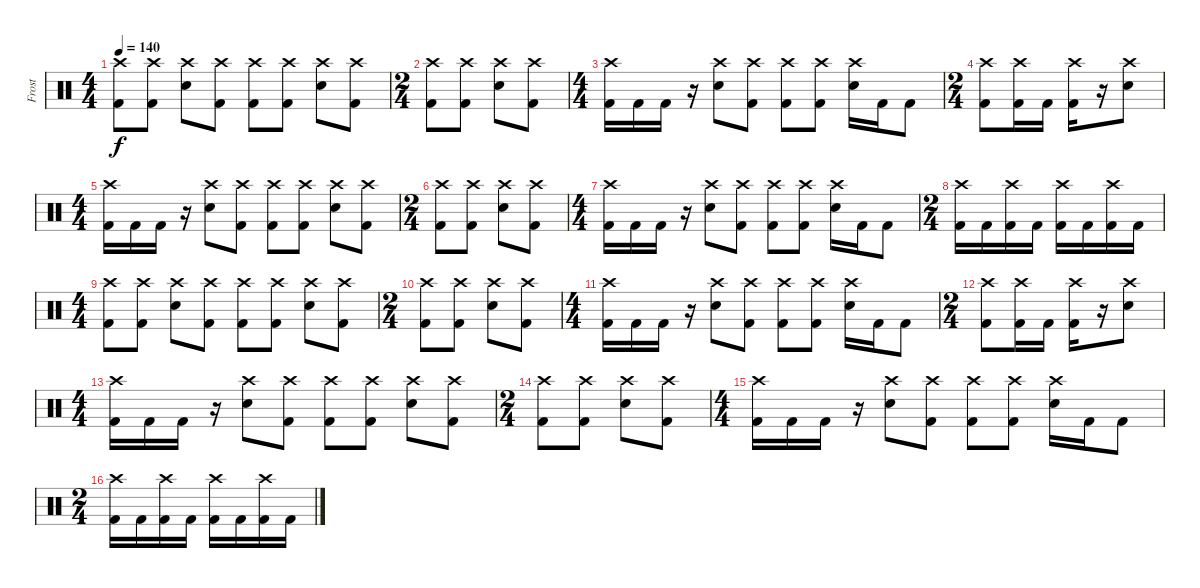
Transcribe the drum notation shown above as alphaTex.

\track ("Frost" "Frost") {instrument percussion}
\staff {score}
\articulation defaults
\ts (4 4)
\tempo 140
\clef neutral
\ks c
("Crash high (hit)" "Kick (hit) 2").8{dy f} ("Crash high (hit)" "Kick (hit) 2").8 ("Crash high (hit)" "Snare (hit) 2").8 ("Crash high (hit)" "Kick (hit) 2").8 ("Crash high (hit)" "Kick (hit) 2").8 ("Crash high (hit)" "Kick (hit) 2").8 ("Crash high (hit)" "Snare (hit) 2").8 ("Crash high (hit)" "Kick (hit) 2").8 |
\ts (2 4)
("Crash high (hit)" "Kick (hit) 2").8 ("Crash high (hit)" "Kick (hit) 2").8 ("Crash high (hit)" "Snare (hit) 2").8 ("Crash high (hit)" "Kick (hit) 2").8 |
\ts (4 4)
("Crash high (hit)" "Kick (hit) 2").16 "Kick (hit) 2".16 "Kick (hit) 2".16 r.16 ("Crash high (hit)" "Snare (hit) 2").8 ("Crash high (hit)" "Kick (hit) 2").8 ("Crash high (hit)" "Kick (hit) 2").8 ("Crash high (hit)" "Kick (hit) 2").8 ("Crash high (hit)" "Snare (hit) 2").16 "Kick (hit) 2".16 "Kick (hit) 2".8 |
\ts (2 4)
("Crash high (hit)" "Kick (hit) 2").8 ("Crash high (hit)" "Kick (hit) 2").16 "Kick (hit) 2".16 ("Crash high (hit)" "Kick (hit) 2").16 r.16 ("Crash high (hit)" "Snare (hit) 2").8 |
\ts (4 4)
("Crash high (hit)" "Kick (hit) 2").16 "Kick (hit) 2".16 "Kick (hit) 2".16 r.16 ("Crash high (hit)" "Snare (hit) 2").8 ("Crash high (hit)" "Kick (hit) 2").8 ("Crash high (hit)" "Kick (hit) 2").8 ("Crash high (hit)" "Kick (hit) 2").8 ("Crash high (hit)" "Snare (hit) 2").8 ("Crash high (hit)" "Kick (hit) 2").8 |
\ts (2 4)
("Crash high (hit)" "Kick (hit) 2").8 ("Crash high (hit)" "Kick (hit) 2").8 ("Crash high (hit)" "Snare (hit) 2").8 ("Crash high (hit)" "Kick (hit) 2").8 |
\ts (4 4)
("Crash high (hit)" "Kick (hit) 2").16 "Kick (hit) 2".16 "Kick (hit) 2".16 r.16 ("Crash high (hit)" "Snare (hit) 2").8 ("Crash high (hit)" "Kick (hit) 2").8 ("Crash high (hit)" "Kick (hit) 2").8 ("Crash high (hit)" "Kick (hit) 2").8 ("Crash high (hit)" "Snare (hit) 2").16 "Kick (hit) 2".16 "Kick (hit) 2".8 |
\ts (2 4)
("Crash high (hit)" "Kick (hit) 2").16 "Kick (hit) 2".16 ("Crash high (hit)" "Kick (hit) 2").16 "Kick (hit) 2".16 ("Crash high (hit)" "Kick (hit) 2").16 "Kick (hit) 2".16 ("Crash high (hit)" "Kick (hit) 2").16 "Kick (hit) 2".16 |
\ts (4 4)
("Crash high (hit)" "Kick (hit) 2").8 ("Crash high (hit)" "Kick (hit) 2").8 ("Crash high (hit)" "Snare (hit) 2").8 ("Crash high (hit)" "Kick (hit) 2").8 ("Crash high (hit)" "Kick (hit) 2").8 ("Crash high (hit)" "Kick (hit) 2").8 ("Crash high (hit)" "Snare (hit) 2").8 ("Crash high (hit)" "Kick (hit) 2").8 |
\ts (2 4)
("Crash high (hit)" "Kick (hit) 2").8 ("Crash high (hit)" "Kick (hit) 2").8 ("Crash high (hit)" "Snare (hit) 2").8 ("Crash high (hit)" "Kick (hit) 2").8 |
\ts (4 4)
("Crash high (hit)" "Kick (hit) 2").16 "Kick (hit) 2".16 "Kick (hit) 2".16 r.16 ("Crash high (hit)" "Snare (hit) 2").8 ("Crash high (hit)" "Kick (hit) 2").8 ("Crash high (hit)" "Kick (hit) 2").8 ("Crash high (hit)" "Kick (hit) 2").8 ("Crash high (hit)" "Snare (hit) 2").16 "Kick (hit) 2".16 "Kick (hit) 2".8 |
\ts (2 4)
("Crash high (hit)" "Kick (hit) 2").8 ("Crash high (hit)" "Kick (hit) 2").16 "Kick (hit) 2".16 ("Crash high (hit)" "Kick (hit) 2").16 r.16 ("Crash high (hit)" "Snare (hit) 2").8 |
\ts (4 4)
("Crash high (hit)" "Kick (hit) 2").16 "Kick (hit) 2".16 "Kick (hit) 2".16 r.16 ("Crash high (hit)" "Snare (hit) 2").8 ("Crash high (hit)" "Kick (hit) 2").8 ("Crash high (hit)" "Kick (hit) 2").8 ("Crash high (hit)" "Kick (hit) 2").8 ("Crash high (hit)" "Snare (hit) 2").8 ("Crash high (hit)" "Kick (hit) 2").8 |
\ts (2 4)
("Crash high (hit)" "Kick (hit) 2").8 ("Crash high (hit)" "Kick (hit) 2").8 ("Crash high (hit)" "Snare (hit) 2").8 ("Crash high (hit)" "Kick (hit) 2").8 |
\ts (4 4)
("Crash high (hit)" "Kick (hit) 2").16 "Kick (hit) 2".16 "Kick (hit) 2".16 r.16 ("Crash high (hit)" "Snare (hit) 2").8 ("Crash high (hit)" "Kick (hit) 2").8 ("Crash high (hit)" "Kick (hit) 2").8 ("Crash high (hit)" "Kick (hit) 2").8 ("Crash high (hit)" "Snare (hit) 2").16 "Kick (hit) 2".16 "Kick (hit) 2".8 |
\ts (2 4)
("Crash high (hit)" "Kick (hit) 2").16 "Kick (hit) 2".16 ("Crash high (hit)" "Kick (hit) 2").16 "Kick (hit) 2".16 ("Crash high (hit)" "Kick (hit) 2").16 "Kick (hit) 2".16 ("Crash high (hit)" "Kick (hit) 2").16 "Kick (hit) 2".16
